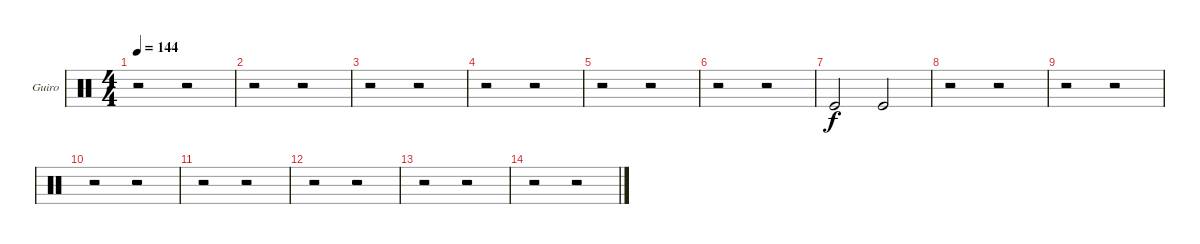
\bracketExtendMode groupsimilarinstruments
\firstSystemTrackNameOrientation horizontal
\otherSystemsTrackNameOrientation horizontal
\track ("Guiro" "Guiro") {instrument percussion}
\staff {score}
\articulation defaults
\ts (4 4)
\tempo 144
\clef neutral
\ks c
r.2{dy f} r.2 |
r.2 r.2 |
r.2 r.2 |
r.2 r.2 |
r.2 r.2 |
r.2 r.2 |
"Kick (hit)".2 "Kick (hit)".2 |
r.2 r.2 |
r.2 r.2 |
r.2 r.2 |
r.2 r.2 |
r.2 r.2 |
r.2 r.2 |
r.2 r.2
